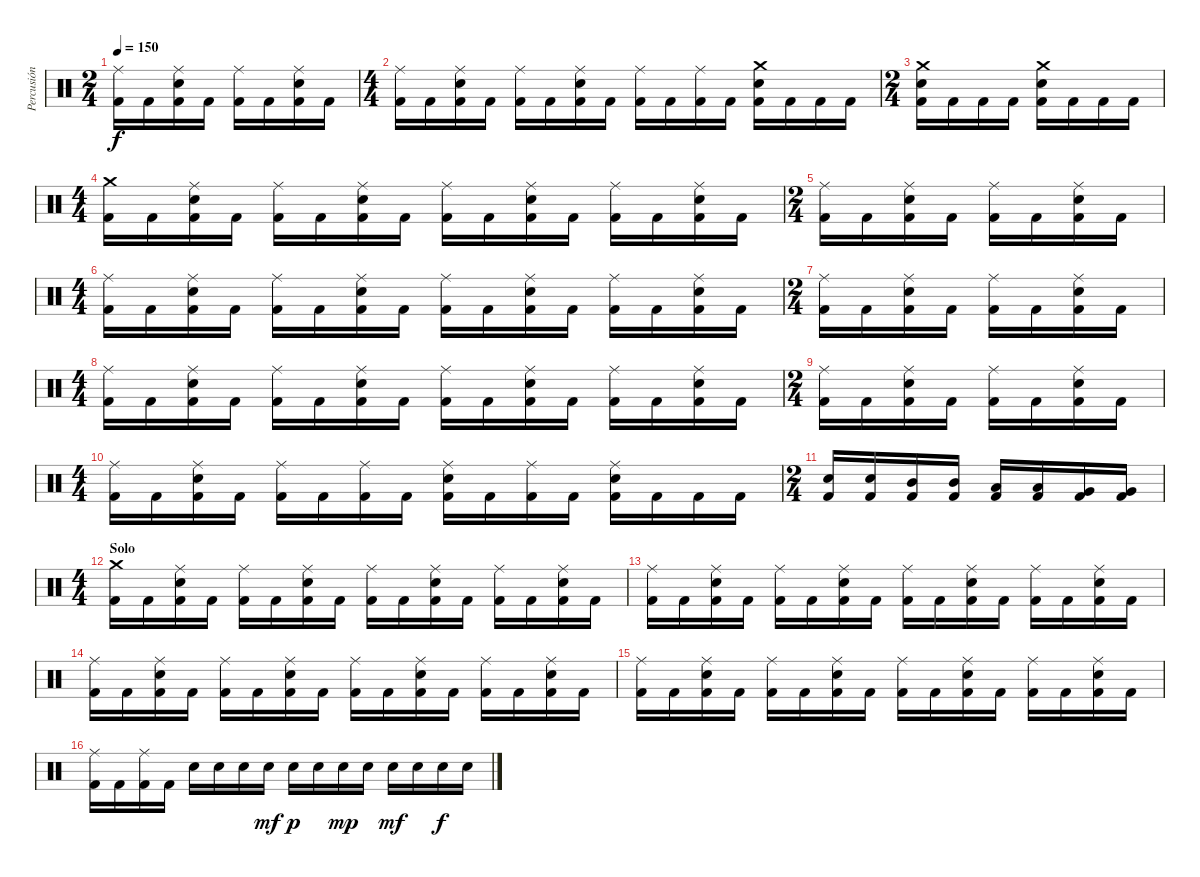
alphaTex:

\track ("Percusión" "Percusión") {instrument percussion}
\staff {score}
\articulation defaults
\ts (2 4)
\tempo 150
\clef neutral
\ks c
("Ride (middle)" "Kick (hit) 2").16{dy f} "Kick (hit) 2".16 ("Ride (middle)" "Kick (hit) 2" "Snare (hit) 2").16 "Kick (hit) 2".16 ("Ride (middle)" "Kick (hit) 2").16 "Kick (hit) 2".16 ("Ride (middle)" "Kick (hit) 2" "Snare (hit) 2").16 "Kick (hit) 2".16 |
\ts (4 4)
("Ride (middle)" "Kick (hit) 2").16 "Kick (hit) 2".16 ("Ride (middle)" "Kick (hit) 2" "Snare (hit) 2").16 "Kick (hit) 2".16 ("Ride (middle)" "Kick (hit) 2").16 "Kick (hit) 2".16 ("Ride (middle)" "Kick (hit) 2" "Snare (hit) 2").16 "Kick (hit) 2".16 ("Ride (middle)" "Kick (hit) 2").16 "Kick (hit) 2".16 ("Ride (middle)" "Kick (hit) 2").16 "Kick (hit) 2".16 ("Crash medium (hit)" "Kick (hit) 2" "Snare (hit) 2").16 "Kick (hit) 2".16 "Kick (hit) 2".16 "Kick (hit) 2".16 |
\ts (2 4)
("Crash medium (hit)" "Kick (hit) 2" "Snare (hit) 2").16 "Kick (hit) 2".16 "Kick (hit) 2".16 "Kick (hit) 2".16 ("Crash medium (hit)" "Kick (hit) 2" "Snare (hit) 2").16 "Kick (hit) 2".16 "Kick (hit) 2".16 "Kick (hit) 2".16 |
\ts (4 4)
("Crash medium (hit)" "Kick (hit) 2").16 "Kick (hit) 2".16 ("Ride (middle)" "Kick (hit) 2" "Snare (hit) 2").16 "Kick (hit) 2".16 ("Ride (middle)" "Kick (hit) 2").16 "Kick (hit) 2".16 ("Ride (middle)" "Kick (hit) 2" "Snare (hit) 2").16 "Kick (hit) 2".16 ("Ride (middle)" "Kick (hit) 2").16 "Kick (hit) 2".16 ("Ride (middle)" "Kick (hit) 2" "Snare (hit) 2").16 "Kick (hit) 2".16 ("Ride (middle)" "Kick (hit) 2").16 "Kick (hit) 2".16 ("Ride (middle)" "Kick (hit) 2" "Snare (hit) 2").16 "Kick (hit) 2".16 |
\ts (2 4)
("Ride (middle)" "Kick (hit) 2").16 "Kick (hit) 2".16 ("Ride (middle)" "Kick (hit) 2" "Snare (hit) 2").16 "Kick (hit) 2".16 ("Ride (middle)" "Kick (hit) 2").16 "Kick (hit) 2".16 ("Ride (middle)" "Kick (hit) 2" "Snare (hit) 2").16 "Kick (hit) 2".16 |
\ts (4 4)
("Ride (middle)" "Kick (hit) 2").16 "Kick (hit) 2".16 ("Ride (middle)" "Kick (hit) 2" "Snare (hit) 2").16 "Kick (hit) 2".16 ("Ride (middle)" "Kick (hit) 2").16 "Kick (hit) 2".16 ("Ride (middle)" "Kick (hit) 2" "Snare (hit) 2").16 "Kick (hit) 2".16 ("Ride (middle)" "Kick (hit) 2").16 "Kick (hit) 2".16 ("Ride (middle)" "Kick (hit) 2" "Snare (hit) 2").16 "Kick (hit) 2".16 ("Ride (middle)" "Kick (hit) 2").16 "Kick (hit) 2".16 ("Ride (middle)" "Kick (hit) 2" "Snare (hit) 2").16 "Kick (hit) 2".16 |
\ts (2 4)
("Ride (middle)" "Kick (hit) 2").16 "Kick (hit) 2".16 ("Ride (middle)" "Kick (hit) 2" "Snare (hit) 2").16 "Kick (hit) 2".16 ("Ride (middle)" "Kick (hit) 2").16 "Kick (hit) 2".16 ("Ride (middle)" "Kick (hit) 2" "Snare (hit) 2").16 "Kick (hit) 2".16 |
\ts (4 4)
("Ride (middle)" "Kick (hit) 2").16 "Kick (hit) 2".16 ("Ride (middle)" "Kick (hit) 2" "Snare (hit) 2").16 "Kick (hit) 2".16 ("Ride (middle)" "Kick (hit) 2").16 "Kick (hit) 2".16 ("Ride (middle)" "Kick (hit) 2" "Snare (hit) 2").16 "Kick (hit) 2".16 ("Ride (middle)" "Kick (hit) 2").16 "Kick (hit) 2".16 ("Ride (middle)" "Kick (hit) 2" "Snare (hit) 2").16 "Kick (hit) 2".16 ("Ride (middle)" "Kick (hit) 2").16 "Kick (hit) 2".16 ("Ride (middle)" "Kick (hit) 2" "Snare (hit) 2").16 "Kick (hit) 2".16 |
\ts (2 4)
("Ride (middle)" "Kick (hit) 2").16 "Kick (hit) 2".16 ("Ride (middle)" "Kick (hit) 2" "Snare (hit) 2").16 "Kick (hit) 2".16 ("Ride (middle)" "Kick (hit) 2").16 "Kick (hit) 2".16 ("Ride (middle)" "Kick (hit) 2" "Snare (hit) 2").16 "Kick (hit) 2".16 |
\ts (4 4)
("Ride (middle)" "Kick (hit) 2").16 "Kick (hit) 2".16 ("Ride (middle)" "Kick (hit) 2" "Snare (hit) 2").16 "Kick (hit) 2".16 ("Ride (middle)" "Kick (hit) 2").16 "Kick (hit) 2".16 ("Ride (middle)" "Kick (hit) 2").16 "Kick (hit) 2".16 ("Ride (middle)" "Kick (hit) 2" "Snare (hit) 2").16 "Kick (hit) 2".16 ("Ride (middle)" "Kick (hit) 2").16 "Kick (hit) 2".16 ("Ride (middle)" "Kick (hit) 2" "Snare (hit) 2").16 "Kick (hit) 2".16 "Kick (hit) 2".16 "Kick (hit) 2".16 |
\ts (2 4)
("Kick (hit) 2" "Snare (hit) 2").16 ("Kick (hit) 2" "Snare (hit) 2").16 ("Kick (hit) 2" "Mid Tom (hit)").16 ("Kick (hit) 2" "Mid Tom (hit)").16 ("Kick (hit) 2" "Low Tom (hit)").16 ("Kick (hit) 2" "Low Tom (hit)").16 ("Kick (hit) 2" "Very Low Tom (hit)").16 ("Kick (hit) 2" "Very Low Tom (hit)").16 |
\ts (4 4)
\section ("" "Solo")
("Crash medium (hit)" "Kick (hit) 2").16 "Kick (hit) 2".16 ("Ride (middle)" "Kick (hit) 2" "Snare (hit) 2").16 "Kick (hit) 2".16 ("Ride (middle)" "Kick (hit) 2").16 "Kick (hit) 2".16 ("Ride (middle)" "Kick (hit) 2" "Snare (hit) 2").16 "Kick (hit) 2".16 ("Ride (middle)" "Kick (hit) 2").16 "Kick (hit) 2".16 ("Ride (middle)" "Kick (hit) 2" "Snare (hit) 2").16 "Kick (hit) 2".16 ("Ride (middle)" "Kick (hit) 2").16 "Kick (hit) 2".16 ("Ride (middle)" "Kick (hit) 2" "Snare (hit) 2").16 "Kick (hit) 2".16 |
("Ride (middle)" "Kick (hit) 2").16 "Kick (hit) 2".16 ("Ride (middle)" "Kick (hit) 2" "Snare (hit) 2").16 "Kick (hit) 2".16 ("Ride (middle)" "Kick (hit) 2").16 "Kick (hit) 2".16 ("Ride (middle)" "Kick (hit) 2" "Snare (hit) 2").16 "Kick (hit) 2".16 ("Ride (middle)" "Kick (hit) 2").16 "Kick (hit) 2".16 ("Ride (middle)" "Kick (hit) 2" "Snare (hit) 2").16 "Kick (hit) 2".16 ("Ride (middle)" "Kick (hit) 2").16 "Kick (hit) 2".16 ("Ride (middle)" "Kick (hit) 2" "Snare (hit) 2").16 "Kick (hit) 2".16 |
("Ride (middle)" "Kick (hit) 2").16 "Kick (hit) 2".16 ("Ride (middle)" "Kick (hit) 2" "Snare (hit) 2").16 "Kick (hit) 2".16 ("Ride (middle)" "Kick (hit) 2").16 "Kick (hit) 2".16 ("Ride (middle)" "Kick (hit) 2" "Snare (hit) 2").16 "Kick (hit) 2".16 ("Ride (middle)" "Kick (hit) 2").16 "Kick (hit) 2".16 ("Ride (middle)" "Kick (hit) 2" "Snare (hit) 2").16 "Kick (hit) 2".16 ("Ride (middle)" "Kick (hit) 2").16 "Kick (hit) 2".16 ("Ride (middle)" "Kick (hit) 2" "Snare (hit) 2").16 "Kick (hit) 2".16 |
("Ride (middle)" "Kick (hit) 2").16 "Kick (hit) 2".16 ("Ride (middle)" "Kick (hit) 2" "Snare (hit) 2").16 "Kick (hit) 2".16 ("Ride (middle)" "Kick (hit) 2").16 "Kick (hit) 2".16 ("Ride (middle)" "Kick (hit) 2" "Snare (hit) 2").16 "Kick (hit) 2".16 ("Ride (middle)" "Kick (hit) 2").16 "Kick (hit) 2".16 ("Ride (middle)" "Kick (hit) 2" "Snare (hit) 2").16 "Kick (hit) 2".16 ("Ride (middle)" "Kick (hit) 2").16 "Kick (hit) 2".16 ("Ride (middle)" "Kick (hit) 2" "Snare (hit) 2").16 "Kick (hit) 2".16 |
("Ride (middle)" "Kick (hit) 2").16 "Kick (hit) 2".16 ("Ride (middle)" "Kick (hit) 2").16 "Kick (hit) 2".16 "Snare (hit) 2".16 "Snare (hit) 2".16 "Snare (hit) 2".16 "Snare (hit) 2".16{dy mf} "Snare (hit) 2".16{dy p} "Snare (hit) 2".16 "Snare (hit) 2".16{dy mp} "Snare (hit) 2".16 "Snare (hit) 2".16{dy mf} "Snare (hit) 2".16 "Snare (hit) 2".16{dy f} "Snare (hit) 2".16
